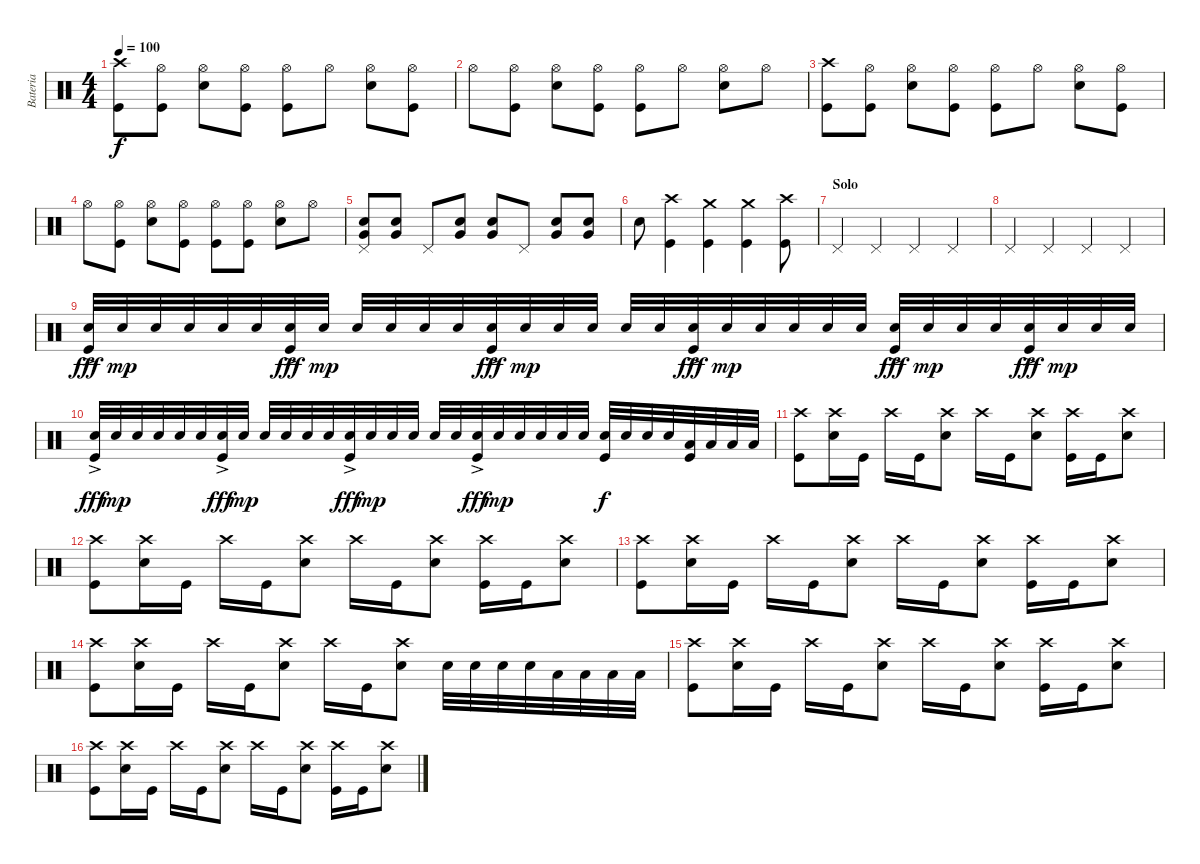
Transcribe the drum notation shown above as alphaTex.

\track ("Bateria" "Bateria") {instrument percussion}
\staff {score}
\articulation defaults
\ts (4 4)
\tempo 100
\clef neutral
\ks c
("Crash high (hit)" "Kick (hit)").8{dy f} ("Hi-Hat (open)" "Kick (hit)").8 ("Hi-Hat (open)" "Electric Snare (hit)").8 ("Hi-Hat (open)" "Kick (hit)").8 ("Hi-Hat (open)" "Kick (hit)").8 "Hi-Hat (open)".8 ("Hi-Hat (open)" "Electric Snare (hit)").8 ("Hi-Hat (open)" "Kick (hit)").8 |
"Hi-Hat (open)".8 ("Hi-Hat (open)" "Kick (hit)").8 ("Hi-Hat (open)" "Electric Snare (hit)").8 ("Hi-Hat (open)" "Kick (hit)").8 ("Hi-Hat (open)" "Kick (hit)").8 "Hi-Hat (open)".8 ("Hi-Hat (open)" "Electric Snare (hit)").8 "Hi-Hat (open)".8 |
("Crash high (hit)" "Kick (hit)").8 ("Hi-Hat (open)" "Kick (hit)").8 ("Hi-Hat (open)" "Electric Snare (hit)").8 ("Hi-Hat (open)" "Kick (hit)").8 ("Hi-Hat (open)" "Kick (hit)").8 "Hi-Hat (open)".8 ("Hi-Hat (open)" "Electric Snare (hit)").8 ("Hi-Hat (open)" "Kick (hit)").8 |
"Hi-Hat (open)".8 ("Hi-Hat (open)" "Kick (hit)").8 ("Hi-Hat (open)" "Electric Snare (hit)").8 ("Hi-Hat (open)" "Kick (hit)").8 ("Hi-Hat (open)" "Kick (hit)").8 ("Hi-Hat (open)" "Kick (hit)").8 ("Hi-Hat (open)" "Electric Snare (hit)").8 "Hi-Hat (open)".8 |
("Very Low Tom (hit)" "Electric Snare (hit)" "Pedal Hi-Hat (hit)").8 ("Very Low Tom (hit)" "Electric Snare (hit)").8 "Pedal Hi-Hat (hit)".8 ("Very Low Tom (hit)" "Electric Snare (hit)").8 ("Very Low Tom (hit)" "Electric Snare (hit)").8 "Pedal Hi-Hat (hit)".8 ("Very Low Tom (hit)" "Electric Snare (hit)").8 ("Very Low Tom (hit)" "Electric Snare (hit)").8 |
"Electric Snare (hit)".8 ("Crash high (hit)" "Kick (hit)").4 ("Crash medium (hit)" "Kick (hit)").4 ("Crash medium (hit)" "Kick (hit)").4 ("Crash high (hit)" "Kick (hit)").8 |
\section ("" "Solo")
"Pedal Hi-Hat (hit)".4 "Pedal Hi-Hat (hit)".4 "Pedal Hi-Hat (hit)".4 "Pedal Hi-Hat (hit)".4 |
"Pedal Hi-Hat (hit)".4 "Pedal Hi-Hat (hit)".4 "Pedal Hi-Hat (hit)".4 "Pedal Hi-Hat (hit)".4 |
("Electric Snare (hit)"{ac} "Kick (hit)").32{dy fff} "Electric Snare (hit)".32{dy mp} "Electric Snare (hit)".32 "Electric Snare (hit)".32 "Electric Snare (hit)".32 "Electric Snare (hit)".32 ("Electric Snare (hit)"{ac} "Kick (hit)").32{dy fff} "Electric Snare (hit)".32{dy mp} "Electric Snare (hit)".32 "Electric Snare (hit)".32 "Electric Snare (hit)".32 "Electric Snare (hit)".32 ("Electric Snare (hit)"{ac} "Kick (hit)").32{dy fff} "Electric Snare (hit)".32{dy mp} "Electric Snare (hit)".32 "Electric Snare (hit)".32 "Electric Snare (hit)".32 "Electric Snare (hit)".32 ("Electric Snare (hit)"{ac} "Kick (hit)").32{dy fff} "Electric Snare (hit)".32{dy mp} "Electric Snare (hit)".32 "Electric Snare (hit)".32 "Electric Snare (hit)".32 "Electric Snare (hit)".32 ("Electric Snare (hit)"{ac} "Kick (hit)").32{dy fff} "Electric Snare (hit)".32{dy mp} "Electric Snare (hit)".32 "Electric Snare (hit)".32 ("Electric Snare (hit)"{ac} "Kick (hit)").32{dy fff} "Electric Snare (hit)".32{dy mp} "Electric Snare (hit)".32 "Electric Snare (hit)".32 |
("Electric Snare (hit)"{ac} "Kick (hit)").32{dy fff} "Electric Snare (hit)".32{dy mp} "Electric Snare (hit)".32 "Electric Snare (hit)".32 "Electric Snare (hit)".32 "Electric Snare (hit)".32 ("Electric Snare (hit)"{ac} "Kick (hit)").32{dy fff} "Electric Snare (hit)".32{dy mp} "Electric Snare (hit)".32 "Electric Snare (hit)".32 "Electric Snare (hit)".32 "Electric Snare (hit)".32 ("Electric Snare (hit)"{ac} "Kick (hit)").32{dy fff} "Electric Snare (hit)".32{dy mp} "Electric Snare (hit)".32 "Electric Snare (hit)".32 "Electric Snare (hit)".32 "Electric Snare (hit)".32 ("Electric Snare (hit)"{ac} "Kick (hit)").32{dy fff} "Electric Snare (hit)".32{dy mp} "Electric Snare (hit)".32 "Electric Snare (hit)".32 "Electric Snare (hit)".32 "Electric Snare (hit)".32 ("Electric Snare (hit)" "Kick (hit)").32{dy f} "Electric Snare (hit)".32 "Electric Snare (hit)".32 "Electric Snare (hit)".32 ("Low Tom (hit)" "Kick (hit)").32 "Low Tom (hit)".32 "Low Tom (hit)".32 "Low Tom (hit)".32 |
("Crash high (hit)" "Kick (hit)").8 ("Crash high (hit)" "Electric Snare (hit)").16 "Kick (hit)".16 "Crash high (hit)".16 "Kick (hit)".16 ("Crash high (hit)" "Electric Snare (hit)").8 "Crash high (hit)".16 "Kick (hit)".16 ("Crash high (hit)" "Electric Snare (hit)").8 ("Crash high (hit)" "Kick (hit)").16 "Kick (hit)".16 ("Crash high (hit)" "Electric Snare (hit)").8 |
("Crash high (hit)" "Kick (hit)").8 ("Crash high (hit)" "Electric Snare (hit)").16 "Kick (hit)".16 "Crash high (hit)".16 "Kick (hit)".16 ("Crash high (hit)" "Electric Snare (hit)").8 "Crash high (hit)".16 "Kick (hit)".16 ("Crash high (hit)" "Electric Snare (hit)").8 ("Crash high (hit)" "Kick (hit)").16 "Kick (hit)".16 ("Crash high (hit)" "Electric Snare (hit)").8 |
("Crash high (hit)" "Kick (hit)").8 ("Crash high (hit)" "Electric Snare (hit)").16 "Kick (hit)".16 "Crash high (hit)".16 "Kick (hit)".16 ("Crash high (hit)" "Electric Snare (hit)").8 "Crash high (hit)".16 "Kick (hit)".16 ("Crash high (hit)" "Electric Snare (hit)").8 ("Crash high (hit)" "Kick (hit)").16 "Kick (hit)".16 ("Crash high (hit)" "Electric Snare (hit)").8 |
("Crash high (hit)" "Kick (hit)").8 ("Crash high (hit)" "Electric Snare (hit)").16 "Kick (hit)".16 "Crash high (hit)".16 "Kick (hit)".16 ("Crash high (hit)" "Electric Snare (hit)").8 "Crash high (hit)".16 "Kick (hit)".16 ("Crash high (hit)" "Electric Snare (hit)").8 "Electric Snare (hit)".32 "Electric Snare (hit)".32 "Electric Snare (hit)".32 "Electric Snare (hit)".32 "Low Tom (hit)".32 "Low Tom (hit)".32 "Low Tom (hit)".32 "Low Tom (hit)".32 |
("Crash high (hit)" "Kick (hit)").8 ("Crash high (hit)" "Electric Snare (hit)").16 "Kick (hit)".16 "Crash high (hit)".16 "Kick (hit)".16 ("Crash high (hit)" "Electric Snare (hit)").8 "Crash high (hit)".16 "Kick (hit)".16 ("Crash high (hit)" "Electric Snare (hit)").8 ("Crash high (hit)" "Kick (hit)").16 "Kick (hit)".16 ("Crash high (hit)" "Electric Snare (hit)").8 |
("Crash high (hit)" "Kick (hit)").8 ("Crash high (hit)" "Electric Snare (hit)").16 "Kick (hit)".16 "Crash high (hit)".16 "Kick (hit)".16 ("Crash high (hit)" "Electric Snare (hit)").8 "Crash high (hit)".16 "Kick (hit)".16 ("Crash high (hit)" "Electric Snare (hit)").8 ("Crash high (hit)" "Kick (hit)").16 "Kick (hit)".16 ("Crash high (hit)" "Electric Snare (hit)").8
